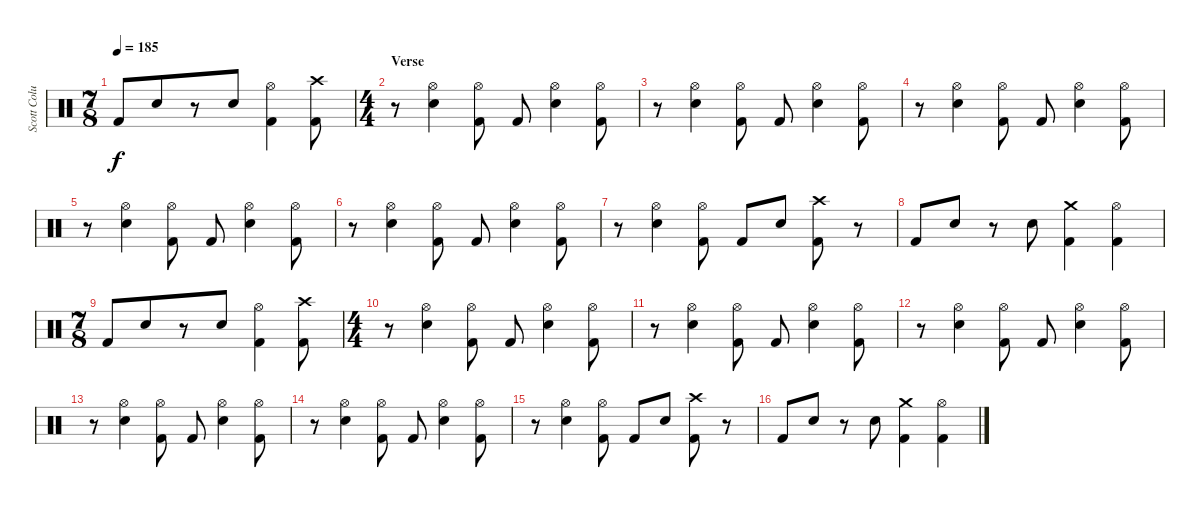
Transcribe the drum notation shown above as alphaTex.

\track ("Scott Columbus" "Scott Colu") {instrument percussion}
\staff {score}
\articulation defaults
\ts (7 8)
\tempo 185
\clef neutral
\ks c "Kick (hit) 2".8{dy f} "Snare (hit) 2".8
r.8 "Snare (hit) 2".8 ("Hi-Hat (open)" "Kick (hit) 2").4 ("Crash high (hit)" "Kick (hit) 2").8 |
\ts (4 4)
\section ("" "Verse")
r.8 ("Hi-Hat (open)" "Snare (hit) 2").4 ("Hi-Hat (open)" "Kick (hit) 2").8 "Kick (hit) 2".8 ("Hi-Hat (open)" "Snare (hit) 2").4 ("Hi-Hat (open)" "Kick (hit) 2").8 |
r.8 ("Hi-Hat (open)" "Snare (hit) 2").4 ("Hi-Hat (open)" "Kick (hit) 2").8 "Kick (hit) 2".8 ("Hi-Hat (open)" "Snare (hit) 2").4 ("Hi-Hat (open)" "Kick (hit) 2").8 |
r.8 ("Hi-Hat (open)" "Snare (hit) 2").4 ("Hi-Hat (open)" "Kick (hit) 2").8 "Kick (hit) 2".8 ("Hi-Hat (open)" "Snare (hit) 2").4 ("Hi-Hat (open)" "Kick (hit) 2").8 |
r.8 ("Hi-Hat (open)" "Snare (hit) 2").4 ("Hi-Hat (open)" "Kick (hit) 2").8 "Kick (hit) 2".8 ("Hi-Hat (open)" "Snare (hit) 2").4 ("Hi-Hat (open)" "Kick (hit) 2").8 |
r.8 ("Hi-Hat (open)" "Snare (hit) 2").4 ("Hi-Hat (open)" "Kick (hit) 2").8 "Kick (hit) 2".8 ("Hi-Hat (open)" "Snare (hit) 2").4 ("Hi-Hat (open)" "Kick (hit) 2").8 |
r.8 ("Hi-Hat (open)" "Snare (hit) 2").4 ("Hi-Hat (open)" "Kick (hit) 2").8 "Kick (hit) 2".8 "Snare (hit) 2".8 ("Crash high (hit)" "Kick (hit) 2").8 r.8 |
"Kick (hit) 2".8 "Snare (hit) 2".8 r.8 "Snare (hit) 2".8 ("Crash medium (hit)" "Kick (hit) 2").4 ("Hi-Hat (open)" "Kick (hit) 2").4 |
\ts (7 8)
"Kick (hit) 2".8 "Snare (hit) 2".8 r.8 "Snare (hit) 2".8 ("Hi-Hat (open)" "Kick (hit) 2").4 ("Crash high (hit)" "Kick (hit) 2").8 |
\ts (4 4)
r.8 ("Hi-Hat (open)" "Snare (hit) 2").4 ("Hi-Hat (open)" "Kick (hit) 2").8 "Kick (hit) 2".8 ("Hi-Hat (open)" "Snare (hit) 2").4 ("Hi-Hat (open)" "Kick (hit) 2").8 |
r.8 ("Hi-Hat (open)" "Snare (hit) 2").4 ("Hi-Hat (open)" "Kick (hit) 2").8 "Kick (hit) 2".8 ("Hi-Hat (open)" "Snare (hit) 2").4 ("Hi-Hat (open)" "Kick (hit) 2").8 |
r.8 ("Hi-Hat (open)" "Snare (hit) 2").4 ("Hi-Hat (open)" "Kick (hit) 2").8 "Kick (hit) 2".8 ("Hi-Hat (open)" "Snare (hit) 2").4 ("Hi-Hat (open)" "Kick (hit) 2").8 |
r.8 ("Hi-Hat (open)" "Snare (hit) 2").4 ("Hi-Hat (open)" "Kick (hit) 2").8 "Kick (hit) 2".8 ("Hi-Hat (open)" "Snare (hit) 2").4 ("Hi-Hat (open)" "Kick (hit) 2").8 |
r.8 ("Hi-Hat (open)" "Snare (hit) 2").4 ("Hi-Hat (open)" "Kick (hit) 2").8 "Kick (hit) 2".8 ("Hi-Hat (open)" "Snare (hit) 2").4 ("Hi-Hat (open)" "Kick (hit) 2").8 |
r.8 ("Hi-Hat (open)" "Snare (hit) 2").4 ("Hi-Hat (open)" "Kick (hit) 2").8 "Kick (hit) 2".8 "Snare (hit) 2".8 ("Crash high (hit)" "Kick (hit) 2").8 r.8 |
"Kick (hit) 2".8 "Snare (hit) 2".8 r.8 "Snare (hit) 2".8 ("Crash medium (hit)" "Kick (hit) 2").4 ("Hi-Hat (open)" "Kick (hit) 2").4
